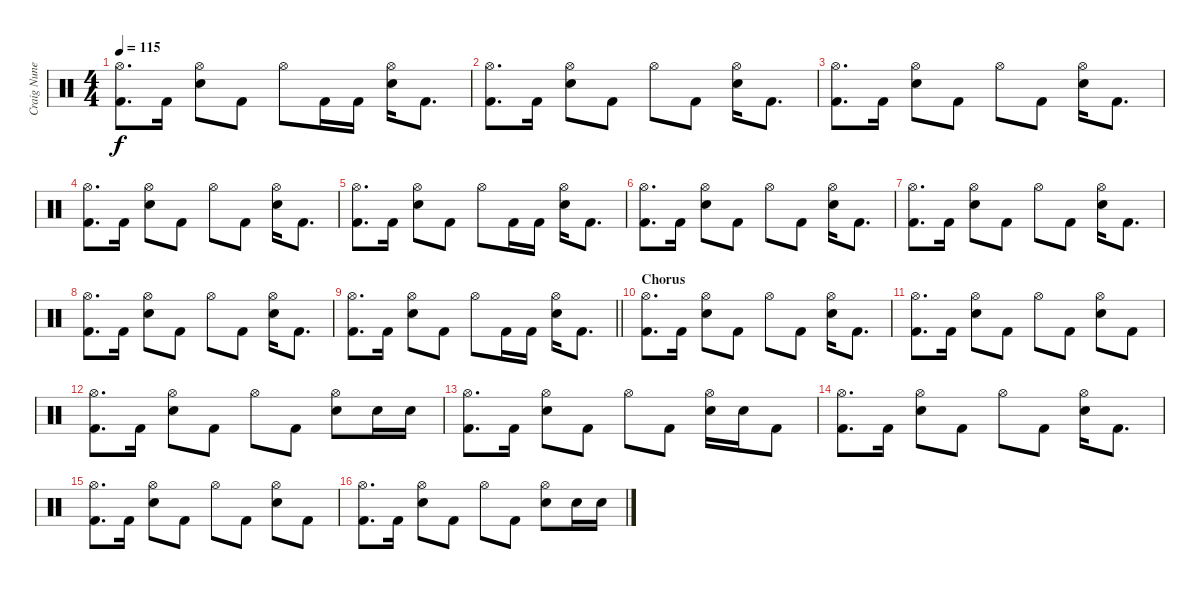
\track ("Craig Nunenmacher" "Craig Nune") {instrument percussion}
\staff {score}
\articulation defaults
\ts (4 4)
\tempo 115
\clef neutral
\ks c
("Hi-Hat (open)" "Kick (hit) 2").8{d dy f} "Kick (hit) 2".16 ("Hi-Hat (open)" "Snare (hit) 2").8 "Kick (hit) 2".8 "Hi-Hat (open)".8 "Kick (hit) 2".16 "Kick (hit) 2".16 ("Hi-Hat (open)" "Snare (hit) 2").16 "Kick (hit) 2".8{d} |
("Hi-Hat (open)" "Kick (hit) 2").8{d} "Kick (hit) 2".16 ("Hi-Hat (open)" "Snare (hit) 2").8 "Kick (hit) 2".8 "Hi-Hat (open)".8 "Kick (hit) 2".8 ("Hi-Hat (open)" "Snare (hit) 2").16 "Kick (hit) 2".8{d} |
("Hi-Hat (open)" "Kick (hit) 2").8{d} "Kick (hit) 2".16 ("Hi-Hat (open)" "Snare (hit) 2").8 "Kick (hit) 2".8 "Hi-Hat (open)".8 "Kick (hit) 2".8 ("Hi-Hat (open)" "Snare (hit) 2").16 "Kick (hit) 2".8{d} |
("Hi-Hat (open)" "Kick (hit) 2").8{d} "Kick (hit) 2".16 ("Hi-Hat (open)" "Snare (hit) 2").8 "Kick (hit) 2".8 "Hi-Hat (open)".8 "Kick (hit) 2".8 ("Hi-Hat (open)" "Snare (hit) 2").16 "Kick (hit) 2".8{d} |
("Hi-Hat (open)" "Kick (hit) 2").8{d} "Kick (hit) 2".16 ("Hi-Hat (open)" "Snare (hit) 2").8 "Kick (hit) 2".8 "Hi-Hat (open)".8 "Kick (hit) 2".16 "Kick (hit) 2".16 ("Hi-Hat (open)" "Snare (hit) 2").16 "Kick (hit) 2".8{d} |
("Hi-Hat (open)" "Kick (hit) 2").8{d} "Kick (hit) 2".16 ("Hi-Hat (open)" "Snare (hit) 2").8 "Kick (hit) 2".8 "Hi-Hat (open)".8 "Kick (hit) 2".8 ("Hi-Hat (open)" "Snare (hit) 2").16 "Kick (hit) 2".8{d} |
("Hi-Hat (open)" "Kick (hit) 2").8{d} "Kick (hit) 2".16 ("Hi-Hat (open)" "Snare (hit) 2").8 "Kick (hit) 2".8 "Hi-Hat (open)".8 "Kick (hit) 2".8 ("Hi-Hat (open)" "Snare (hit) 2").16 "Kick (hit) 2".8{d} |
("Hi-Hat (open)" "Kick (hit) 2").8{d} "Kick (hit) 2".16 ("Hi-Hat (open)" "Snare (hit) 2").8 "Kick (hit) 2".8 "Hi-Hat (open)".8 "Kick (hit) 2".8 ("Hi-Hat (open)" "Snare (hit) 2").16 "Kick (hit) 2".8{d} |
\barLineRight lightlight
("Hi-Hat (open)" "Kick (hit) 2").8{d} "Kick (hit) 2".16 ("Hi-Hat (open)" "Snare (hit) 2").8 "Kick (hit) 2".8 "Hi-Hat (open)".8 "Kick (hit) 2".16 "Kick (hit) 2".16 ("Hi-Hat (open)" "Snare (hit) 2").16 "Kick (hit) 2".8{d} |
\section ("" "Chorus")
("Hi-Hat (open)" "Kick (hit) 2").8{d} "Kick (hit) 2".16 ("Hi-Hat (open)" "Snare (hit) 2").8 "Kick (hit) 2".8 "Hi-Hat (open)".8 "Kick (hit) 2".8 ("Hi-Hat (open)" "Snare (hit) 2").16 "Kick (hit) 2".8{d} |
("Hi-Hat (open)" "Kick (hit) 2").8{d} "Kick (hit) 2".16 ("Hi-Hat (open)" "Snare (hit) 2").8 "Kick (hit) 2".8 "Hi-Hat (open)".8 "Kick (hit) 2".8 ("Hi-Hat (open)" "Snare (hit) 2").8 "Kick (hit) 2".8 |
("Hi-Hat (open)" "Kick (hit) 2").8{d} "Kick (hit) 2".16 ("Hi-Hat (open)" "Snare (hit) 2").8 "Kick (hit) 2".8 "Hi-Hat (open)".8 "Kick (hit) 2".8 ("Hi-Hat (open)" "Snare (hit) 2").8 "Snare (hit) 2".16 "Snare (hit) 2".16 |
("Hi-Hat (open)" "Kick (hit) 2").8{d} "Kick (hit) 2".16 ("Hi-Hat (open)" "Snare (hit) 2").8 "Kick (hit) 2".8 "Hi-Hat (open)".8 "Kick (hit) 2".8 ("Hi-Hat (open)" "Snare (hit) 2").16 "Snare (hit) 2".16 "Kick (hit) 2".8 |
("Hi-Hat (open)" "Kick (hit) 2").8{d} "Kick (hit) 2".16 ("Hi-Hat (open)" "Snare (hit) 2").8 "Kick (hit) 2".8 "Hi-Hat (open)".8 "Kick (hit) 2".8 ("Hi-Hat (open)" "Snare (hit) 2").16 "Kick (hit) 2".8{d} |
("Hi-Hat (open)" "Kick (hit) 2").8{d} "Kick (hit) 2".16 ("Hi-Hat (open)" "Snare (hit) 2").8 "Kick (hit) 2".8 "Hi-Hat (open)".8 "Kick (hit) 2".8 ("Hi-Hat (open)" "Snare (hit) 2").8 "Kick (hit) 2".8 |
("Hi-Hat (open)" "Kick (hit) 2").8{d} "Kick (hit) 2".16 ("Hi-Hat (open)" "Snare (hit) 2").8 "Kick (hit) 2".8 "Hi-Hat (open)".8 "Kick (hit) 2".8 ("Hi-Hat (open)" "Snare (hit) 2").8 "Snare (hit) 2".16 "Snare (hit) 2".16
